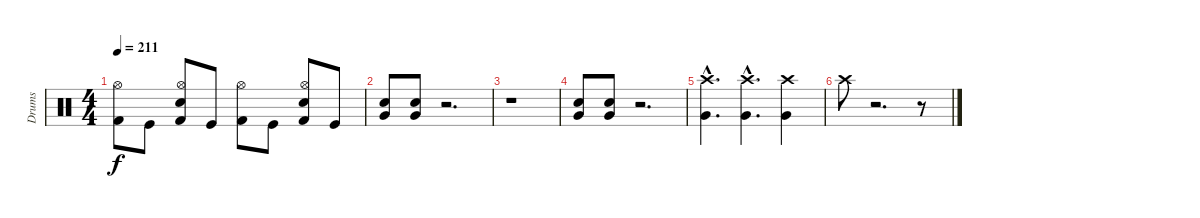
\track ("Drums" "Drums") {instrument percussion}
\staff {score}
\articulation defaults
\ts (4 4)
\tempo 211
\clef neutral
\ks c
("Kick (hit) 2" "Hi-Hat (open)").8{dy f} "Kick (hit)".8 ("Kick (hit) 2" "Snare (hit) 2" "Hi-Hat (open)").8 "Kick (hit)".8 ("Kick (hit) 2" "Hi-Hat (open)").8 "Kick (hit)".8 ("Kick (hit) 2" "Snare (hit) 2" "Hi-Hat (open)").8 "Kick (hit)".8 |
("Very Low Tom (hit)" "Snare (hit) 2").8 ("Very Low Tom (hit)" "Snare (hit) 2").8 r.2{d} |
r.1 |
("Very Low Tom (hit)" "Snare (hit) 2").8 ("Very Low Tom (hit)" "Snare (hit) 2").8 r.2{d} |
("Crash high (hit)"{hac} "Very Low Tom (hit)"{hac}).4{d} ("Crash high (hit)"{hac} "Very Low Tom (hit)"{hac}).4{d} ("Crash high (hit)" "Very Low Tom (hit)").4 |
"Crash high (hit)".8 r.2{d} r.8
